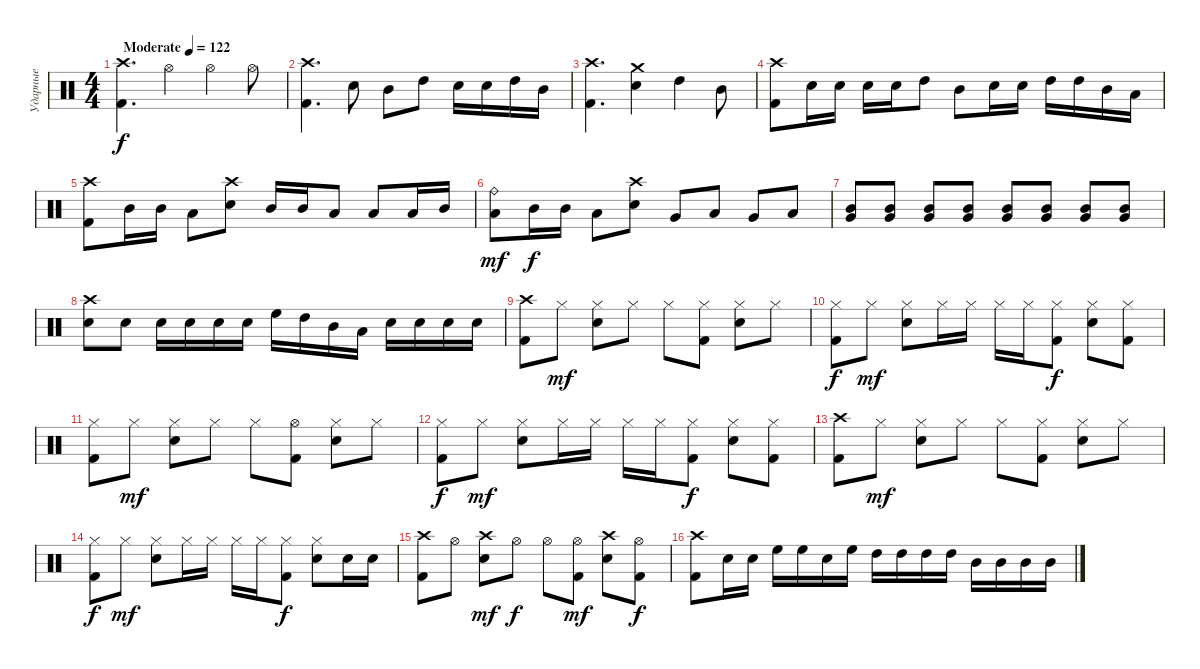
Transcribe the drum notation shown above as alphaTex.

\track ("Ударные" "Ударные") {instrument percussion}
\staff {score}
\articulation defaults
\ts (4 4)
\tempo (122 "Moderate")
\clef neutral
\ks c
("Crash high (hit)" "Kick (hit) 2").4{d dy f} "Hi-Hat (open)".4 "Hi-Hat (open)".4 "Hi-Hat (open)".8 |
("Crash high (hit)" "Kick (hit) 2").4{d} "Snare (hit) 2".8 "Mid Tom (hit)".8 "High Tom (hit)".8 "Snare (hit) 2".16 "Snare (hit) 2".16 "High Tom (hit)".16 "Mid Tom (hit)".16 |
("Crash high (hit)" "Kick (hit) 2").4{d} ("Crash medium (hit)" "Snare (hit) 2").4 "High Tom (hit)".4 "Mid Tom (hit)".8 |
("Crash high (hit)" "Kick (hit) 2").8 "Snare (hit) 2".16 "Snare (hit) 2".16 "Snare (hit) 2".16 "Snare (hit) 2".16 "High Tom (hit)".8 "Mid Tom (hit)".8 "Snare (hit) 2".16 "Snare (hit) 2".16 "High Tom (hit)".16 "High Tom (hit)".16 "Mid Tom (hit)".16 "Low Tom (hit)".16 |
("Crash high (hit)" "Kick (hit) 2").8 "Mid Tom (hit)".16 "Mid Tom (hit)".16 "Low Tom (hit)".8 ("Snare (hit) 2" "Crash high (hit)").8 "Mid Tom (hit)".16 "Mid Tom (hit)".16 "Low Tom (hit)".8 "Low Tom (hit)".8 "Low Tom (hit)".16 "Mid Tom (hit)".16 |
("Ride (bell)" "Low Tom (hit)").8{dy mf} "Mid Tom (hit)".16{dy f} "Mid Tom (hit)".16 "Low Tom (hit)".8 ("Snare (hit) 2" "Crash high (hit)").8 "Very Low Tom (hit)".8 "Low Tom (hit)".8 "Very Low Tom (hit)".8 "Low Tom (hit)".8 |
("Mid Tom (hit)" "Very Low Tom (hit)").8 ("Mid Tom (hit)" "Very Low Tom (hit)").8 ("Mid Tom (hit)" "Very Low Tom (hit)").8 ("Mid Tom (hit)" "Very Low Tom (hit)").8 ("Mid Tom (hit)" "Very Low Tom (hit)").8 ("Mid Tom (hit)" "Very Low Tom (hit)").8 ("Mid Tom (hit)" "Very Low Tom (hit)").8 ("Mid Tom (hit)" "Very Low Tom (hit)").8 |
("Snare (hit) 2" "Crash high (hit)").8 "Snare (hit) 2".8 "Snare (hit) 2".16 "Snare (hit) 2".16 "Snare (hit) 2".16 "Snare (hit) 2".16 "High Floor Tom (hit)".16 "High Tom (hit)".16 "Mid Tom (hit)".16 "Low Tom (hit)".16 "Snare (hit) 2".16 "Snare (hit) 2".16 "Snare (hit) 2".16 "Snare (hit) 2".16 |
("Crash high (hit)" "Kick (hit) 2").8 "Hi-Hat (closed)".8{dy mf} ("Hi-Hat (closed)" "Snare (hit) 2").8 "Hi-Hat (closed)".8 "Hi-Hat (closed)".8 ("Hi-Hat (closed)" "Kick (hit) 2").8 ("Hi-Hat (closed)" "Snare (hit) 2").8 "Hi-Hat (closed)".8 |
("Hi-Hat (closed)" "Kick (hit) 2").8{dy f} "Hi-Hat (closed)".8{dy mf} ("Hi-Hat (closed)" "Snare (hit) 2").8 "Hi-Hat (closed)".16 "Hi-Hat (closed)".16 "Hi-Hat (closed)".16 "Hi-Hat (closed)".16 ("Hi-Hat (closed)" "Kick (hit) 2").8{dy f} ("Snare (hit) 2" "Hi-Hat (closed)").8 ("Kick (hit) 2" "Hi-Hat (closed)").8 |
("Hi-Hat (closed)" "Kick (hit) 2").8 "Hi-Hat (closed)".8{dy mf} ("Hi-Hat (closed)" "Snare (hit) 2").8 "Hi-Hat (closed)".8 "Hi-Hat (closed)".8 ("Hi-Hat (open)" "Kick (hit) 2").8 ("Hi-Hat (closed)" "Snare (hit) 2").8 "Hi-Hat (closed)".8 |
("Hi-Hat (closed)" "Kick (hit) 2").8{dy f} "Hi-Hat (closed)".8{dy mf} ("Hi-Hat (closed)" "Snare (hit) 2").8 "Hi-Hat (closed)".16 "Hi-Hat (closed)".16 "Hi-Hat (closed)".16 "Hi-Hat (closed)".16 ("Hi-Hat (closed)" "Kick (hit) 2").8{dy f} ("Snare (hit) 2" "Hi-Hat (closed)").8 ("Kick (hit) 2" "Hi-Hat (closed)").8 |
("Crash high (hit)" "Kick (hit) 2").8 "Hi-Hat (closed)".8{dy mf} ("Hi-Hat (closed)" "Snare (hit) 2").8 "Hi-Hat (closed)".8 "Hi-Hat (closed)".8 ("Hi-Hat (closed)" "Kick (hit) 2").8 ("Hi-Hat (closed)" "Snare (hit) 2").8 "Hi-Hat (closed)".8 |
("Hi-Hat (closed)" "Kick (hit) 2").8{dy f} "Hi-Hat (closed)".8{dy mf} ("Hi-Hat (closed)" "Snare (hit) 2").8 "Hi-Hat (closed)".16 "Hi-Hat (closed)".16 "Hi-Hat (closed)".16 "Hi-Hat (closed)".16 ("Hi-Hat (closed)" "Kick (hit) 2").8{dy f} ("Snare (hit) 2" "Hi-Hat (closed)").8 "Snare (hit) 2".16 "Snare (hit) 2".16 |
("Crash high (hit)" "Kick (hit) 2").8 "Hi-Hat (open)".8 ("Crash high (hit)" "Snare (hit) 2").8{dy mf} "Hi-Hat (open)".8{dy f} "Hi-Hat (open)".8 ("Hi-Hat (open)" "Kick (hit) 2").8{dy mf} ("Crash high (hit)" "Snare (hit) 2").8 ("Hi-Hat (open)" "Kick (hit) 2").8{dy f} |
("Kick (hit) 2" "Crash high (hit)").8 "Snare (hit) 2".16 "Snare (hit) 2".16 "High Floor Tom (hit)".16 "High Floor Tom (hit)".16 "Snare (hit) 2".16 "High Floor Tom (hit)".16 "High Tom (hit)".16 "High Tom (hit)".16 "High Tom (hit)".16 "High Tom (hit)".16 "Mid Tom (hit)".16 "Mid Tom (hit)".16 "Mid Tom (hit)".16 "Mid Tom (hit)".16
